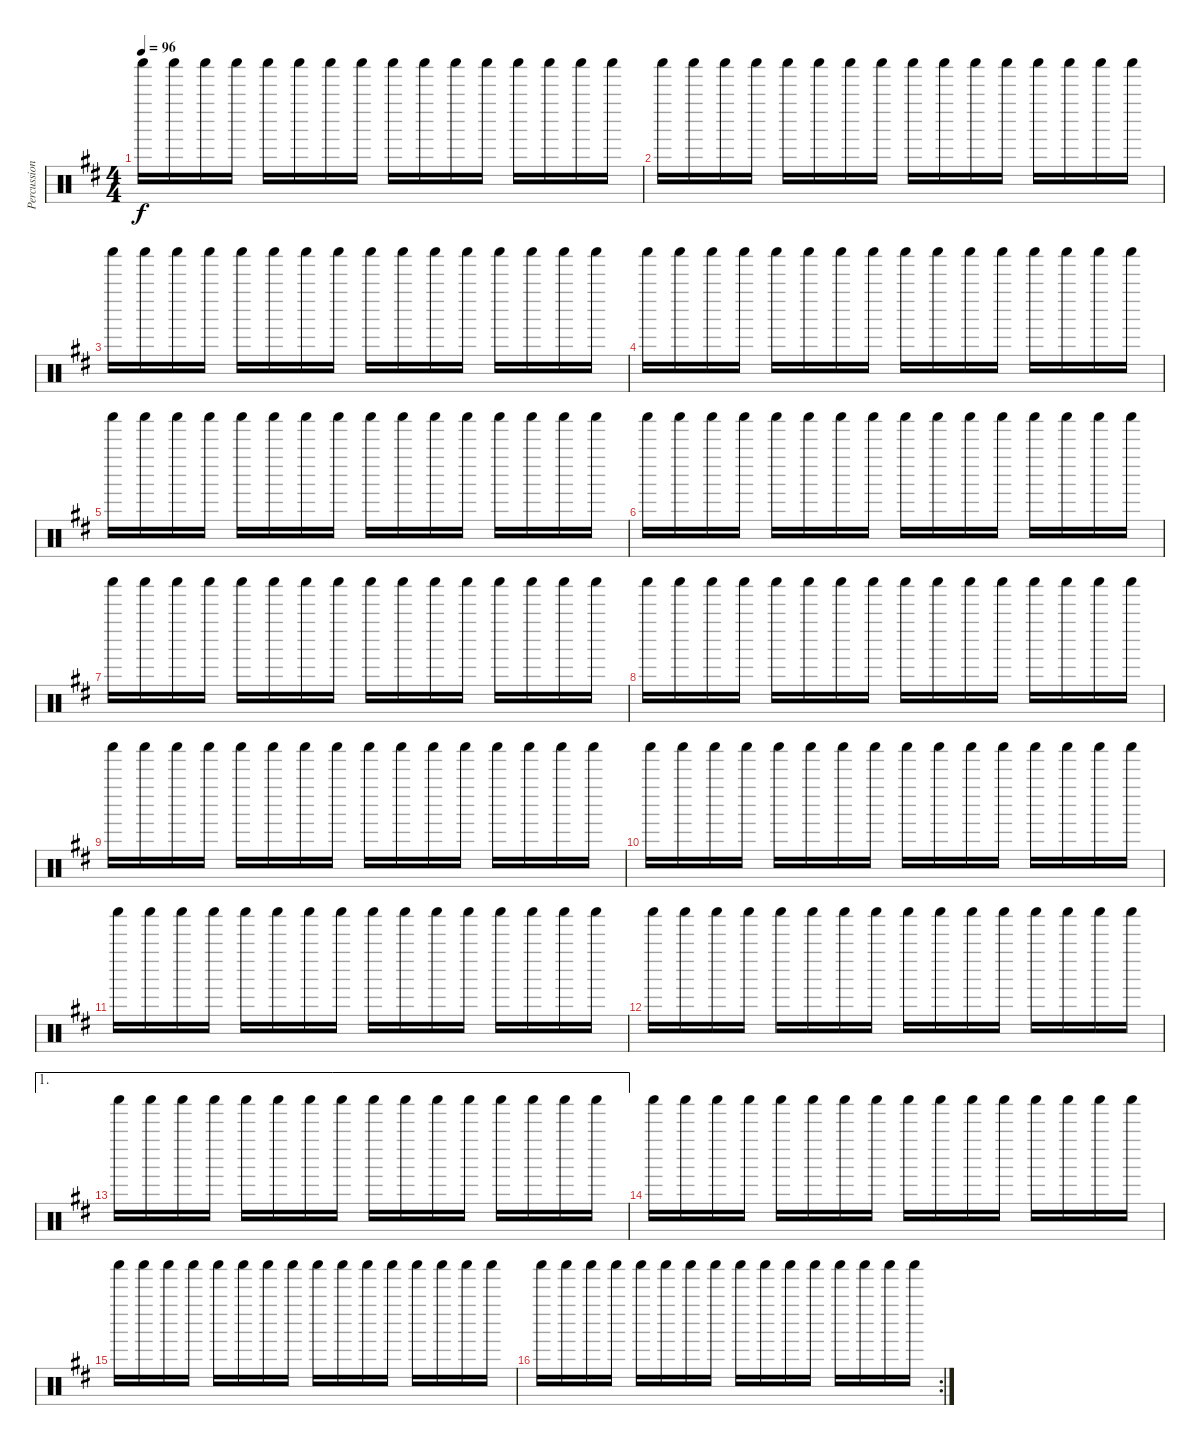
\track ("Percussion" "Percussion") {instrument percussion}
\staff {score}
\articulation defaults
\ts (4 4)
\tempo 96
\clef neutral
\ks d "Shaker (hit)".16{dy f} "Shaker (hit)".16 "Shaker (hit)".16 "Shaker (hit)".16 "Shaker (hit)".16 "Shaker (hit)".16 "Shaker (hit)".16 "Shaker (hit)".16 "Shaker (hit)".16 "Shaker (hit)".16 "Shaker (hit)".16 "Shaker (hit)".16 "Shaker (hit)".16 "Shaker (hit)".16 "Shaker (hit)".16 "Shaker (hit)".16
|
"Shaker (hit)".16 "Shaker (hit)".16 "Shaker (hit)".16 "Shaker (hit)".16 "Shaker (hit)".16 "Shaker (hit)".16 "Shaker (hit)".16 "Shaker (hit)".16 "Shaker (hit)".16 "Shaker (hit)".16 "Shaker (hit)".16 "Shaker (hit)".16 "Shaker (hit)".16 "Shaker (hit)".16 "Shaker (hit)".16 "Shaker (hit)".16 |
"Shaker (hit)".16 "Shaker (hit)".16 "Shaker (hit)".16 "Shaker (hit)".16 "Shaker (hit)".16 "Shaker (hit)".16 "Shaker (hit)".16 "Shaker (hit)".16 "Shaker (hit)".16 "Shaker (hit)".16 "Shaker (hit)".16 "Shaker (hit)".16 "Shaker (hit)".16 "Shaker (hit)".16 "Shaker (hit)".16 "Shaker (hit)".16 |
"Shaker (hit)".16 "Shaker (hit)".16 "Shaker (hit)".16 "Shaker (hit)".16 "Shaker (hit)".16 "Shaker (hit)".16 "Shaker (hit)".16 "Shaker (hit)".16 "Shaker (hit)".16 "Shaker (hit)".16 "Shaker (hit)".16 "Shaker (hit)".16 "Shaker (hit)".16 "Shaker (hit)".16 "Shaker (hit)".16 "Shaker (hit)".16 |
"Shaker (hit)".16 "Shaker (hit)".16 "Shaker (hit)".16 "Shaker (hit)".16 "Shaker (hit)".16 "Shaker (hit)".16 "Shaker (hit)".16 "Shaker (hit)".16 "Shaker (hit)".16 "Shaker (hit)".16 "Shaker (hit)".16 "Shaker (hit)".16 "Shaker (hit)".16 "Shaker (hit)".16 "Shaker (hit)".16 "Shaker (hit)".16 |
"Shaker (hit)".16 "Shaker (hit)".16 "Shaker (hit)".16 "Shaker (hit)".16 "Shaker (hit)".16 "Shaker (hit)".16 "Shaker (hit)".16 "Shaker (hit)".16 "Shaker (hit)".16 "Shaker (hit)".16 "Shaker (hit)".16 "Shaker (hit)".16 "Shaker (hit)".16 "Shaker (hit)".16 "Shaker (hit)".16 "Shaker (hit)".16 |
"Shaker (hit)".16 "Shaker (hit)".16 "Shaker (hit)".16 "Shaker (hit)".16 "Shaker (hit)".16 "Shaker (hit)".16 "Shaker (hit)".16 "Shaker (hit)".16 "Shaker (hit)".16 "Shaker (hit)".16 "Shaker (hit)".16 "Shaker (hit)".16 "Shaker (hit)".16 "Shaker (hit)".16 "Shaker (hit)".16 "Shaker (hit)".16 |
"Shaker (hit)".16 "Shaker (hit)".16 "Shaker (hit)".16 "Shaker (hit)".16 "Shaker (hit)".16 "Shaker (hit)".16 "Shaker (hit)".16 "Shaker (hit)".16 "Shaker (hit)".16 "Shaker (hit)".16 "Shaker (hit)".16 "Shaker (hit)".16 "Shaker (hit)".16 "Shaker (hit)".16 "Shaker (hit)".16 "Shaker (hit)".16 |
"Shaker (hit)".16 "Shaker (hit)".16 "Shaker (hit)".16 "Shaker (hit)".16 "Shaker (hit)".16 "Shaker (hit)".16 "Shaker (hit)".16 "Shaker (hit)".16 "Shaker (hit)".16 "Shaker (hit)".16 "Shaker (hit)".16 "Shaker (hit)".16 "Shaker (hit)".16 "Shaker (hit)".16 "Shaker (hit)".16 "Shaker (hit)".16 |
"Shaker (hit)".16 "Shaker (hit)".16 "Shaker (hit)".16 "Shaker (hit)".16 "Shaker (hit)".16 "Shaker (hit)".16 "Shaker (hit)".16 "Shaker (hit)".16 "Shaker (hit)".16 "Shaker (hit)".16 "Shaker (hit)".16 "Shaker (hit)".16 "Shaker (hit)".16 "Shaker (hit)".16 "Shaker (hit)".16 "Shaker (hit)".16 |
"Shaker (hit)".16 "Shaker (hit)".16 "Shaker (hit)".16 "Shaker (hit)".16 "Shaker (hit)".16 "Shaker (hit)".16 "Shaker (hit)".16 "Shaker (hit)".16 "Shaker (hit)".16 "Shaker (hit)".16 "Shaker (hit)".16 "Shaker (hit)".16 "Shaker (hit)".16 "Shaker (hit)".16 "Shaker (hit)".16 "Shaker (hit)".16 |
"Shaker (hit)".16 "Shaker (hit)".16 "Shaker (hit)".16 "Shaker (hit)".16 "Shaker (hit)".16 "Shaker (hit)".16 "Shaker (hit)".16 "Shaker (hit)".16 "Shaker (hit)".16 "Shaker (hit)".16 "Shaker (hit)".16 "Shaker (hit)".16 "Shaker (hit)".16 "Shaker (hit)".16 "Shaker (hit)".16 "Shaker (hit)".16 |
\ae 1 "Shaker (hit)".16 "Shaker (hit)".16 "Shaker (hit)".16 "Shaker (hit)".16 "Shaker (hit)".16 "Shaker (hit)".16 "Shaker (hit)".16 "Shaker (hit)".16 "Shaker (hit)".16 "Shaker (hit)".16 "Shaker (hit)".16 "Shaker (hit)".16 "Shaker (hit)".16 "Shaker (hit)".16 "Shaker (hit)".16 "Shaker (hit)".16
|
"Shaker (hit)".16 "Shaker (hit)".16 "Shaker (hit)".16 "Shaker (hit)".16 "Shaker (hit)".16 "Shaker (hit)".16 "Shaker (hit)".16 "Shaker (hit)".16 "Shaker (hit)".16 "Shaker (hit)".16 "Shaker (hit)".16 "Shaker (hit)".16 "Shaker (hit)".16 "Shaker (hit)".16 "Shaker (hit)".16 "Shaker (hit)".16 |
"Shaker (hit)".16 "Shaker (hit)".16 "Shaker (hit)".16 "Shaker (hit)".16 "Shaker (hit)".16 "Shaker (hit)".16 "Shaker (hit)".16 "Shaker (hit)".16 "Shaker (hit)".16 "Shaker (hit)".16 "Shaker (hit)".16 "Shaker (hit)".16 "Shaker (hit)".16 "Shaker (hit)".16 "Shaker (hit)".16 "Shaker (hit)".16 |
\rc 2 "Shaker (hit)".16 "Shaker (hit)".16 "Shaker (hit)".16 "Shaker (hit)".16 "Shaker (hit)".16 "Shaker (hit)".16 "Shaker (hit)".16 "Shaker (hit)".16 "Shaker (hit)".16 "Shaker (hit)".16 "Shaker (hit)".16 "Shaker (hit)".16 "Shaker (hit)".16 "Shaker (hit)".16 "Shaker (hit)".16 "Shaker (hit)".16
